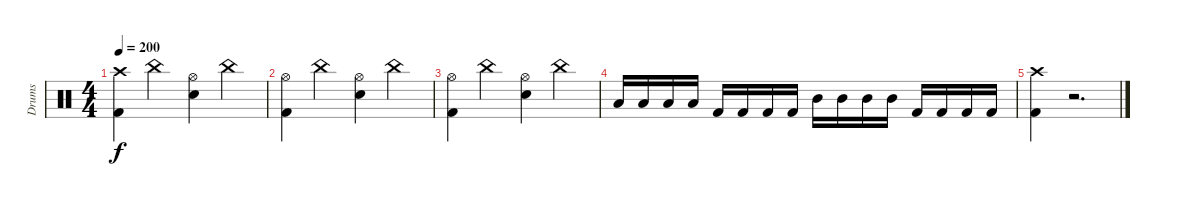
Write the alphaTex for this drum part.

\track ("Drums" "Drums") {instrument percussion}
\staff {score}
\articulation defaults
\ts (4 4)
\tempo 200
\clef neutral
\ks c
("Crash high (hit)" "Kick (hit) 2").4{dy f} "China (hit)".4 ("Hi-Hat (open)" "Electric Snare (hit)").4 "China (hit)".4 |
("Hi-Hat (open)" "Kick (hit) 2").4 "China (hit)".4 ("Hi-Hat (open)" "Electric Snare (hit)").4 "China (hit)".4 |
("Hi-Hat (open)" "Kick (hit) 2").4 "China (hit)".4 ("Hi-Hat (open)" "Electric Snare (hit)").4 "China (hit)".4 |
"Low Tom (hit)".16 "Low Tom (hit)".16 "Low Tom (hit)".16 "Low Tom (hit)".16 "Kick (hit) 2".16 "Kick (hit) 2".16 "Kick (hit) 2".16 "Kick (hit) 2".16 "Mid Tom (hit)".16 "Mid Tom (hit)".16 "Mid Tom (hit)".16 "Mid Tom (hit)".16 "Kick (hit) 2".16 "Kick (hit) 2".16 "Kick (hit) 2".16 "Kick (hit) 2".16 |
("Crash high (hit)" "Kick (hit) 2").4 r.2{d}
